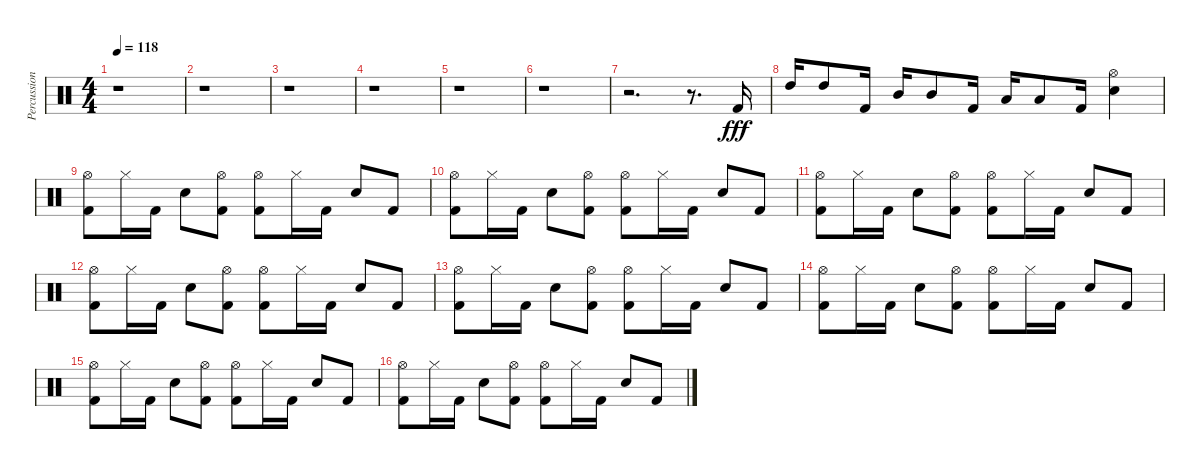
\track ("Percussion" "Percussion") {instrument percussion}
\staff {score}
\articulation defaults
\ts (4 4)
\tempo 118
\clef neutral
\ks c
r.1{dy fff} |
r.1 |
r.1 |
r.1 |
r.1 |
r.1 |
r.2{d} r.8{d} "Kick (hit) 2".16 |
"High Tom (hit)".16 "High Tom (hit)".8 "Kick (hit) 2".16 "Mid Tom (hit)".16 "Mid Tom (hit)".8 "Kick (hit) 2".16 "Low Tom (hit)".16 "Low Tom (hit)".8 "Kick (hit) 2".16 ("Hi-Hat (open)" "Electric Snare (hit)").4 |
("Hi-Hat (open)" "Kick (hit) 2").8 "Hi-Hat (closed)".16 "Kick (hit) 2".16 "Electric Snare (hit)".8 ("Hi-Hat (open)" "Kick (hit) 2").8 ("Hi-Hat (open)" "Kick (hit) 2").8 "Hi-Hat (closed)".16 "Kick (hit) 2".16 "Electric Snare (hit)".8 "Kick (hit) 2".8 |
("Hi-Hat (open)" "Kick (hit) 2").8 "Hi-Hat (closed)".16 "Kick (hit) 2".16 "Electric Snare (hit)".8 ("Hi-Hat (open)" "Kick (hit) 2").8 ("Hi-Hat (open)" "Kick (hit) 2").8 "Hi-Hat (closed)".16 "Kick (hit) 2".16 "Electric Snare (hit)".8 "Kick (hit) 2".8 |
("Hi-Hat (open)" "Kick (hit) 2").8 "Hi-Hat (closed)".16 "Kick (hit) 2".16 "Electric Snare (hit)".8 ("Hi-Hat (open)" "Kick (hit) 2").8 ("Hi-Hat (open)" "Kick (hit) 2").8 "Hi-Hat (closed)".16 "Kick (hit) 2".16 "Electric Snare (hit)".8 "Kick (hit) 2".8 |
("Hi-Hat (open)" "Kick (hit) 2").8 "Hi-Hat (closed)".16 "Kick (hit) 2".16 "Electric Snare (hit)".8 ("Hi-Hat (open)" "Kick (hit) 2").8 ("Hi-Hat (open)" "Kick (hit) 2").8 "Hi-Hat (closed)".16 "Kick (hit) 2".16 "Electric Snare (hit)".8 "Kick (hit) 2".8 |
("Hi-Hat (open)" "Kick (hit) 2").8 "Hi-Hat (closed)".16 "Kick (hit) 2".16 "Electric Snare (hit)".8 ("Hi-Hat (open)" "Kick (hit) 2").8 ("Hi-Hat (open)" "Kick (hit) 2").8 "Hi-Hat (closed)".16 "Kick (hit) 2".16 "Electric Snare (hit)".8 "Kick (hit) 2".8 |
("Hi-Hat (open)" "Kick (hit) 2").8 "Hi-Hat (closed)".16 "Kick (hit) 2".16 "Electric Snare (hit)".8 ("Hi-Hat (open)" "Kick (hit) 2").8 ("Hi-Hat (open)" "Kick (hit) 2").8 "Hi-Hat (closed)".16 "Kick (hit) 2".16 "Electric Snare (hit)".8 "Kick (hit) 2".8 |
("Hi-Hat (open)" "Kick (hit) 2").8 "Hi-Hat (closed)".16 "Kick (hit) 2".16 "Electric Snare (hit)".8 ("Hi-Hat (open)" "Kick (hit) 2").8 ("Hi-Hat (open)" "Kick (hit) 2").8 "Hi-Hat (closed)".16 "Kick (hit) 2".16 "Electric Snare (hit)".8 "Kick (hit) 2".8 |
("Hi-Hat (open)" "Kick (hit) 2").8 "Hi-Hat (closed)".16 "Kick (hit) 2".16 "Electric Snare (hit)".8 ("Hi-Hat (open)" "Kick (hit) 2").8 ("Hi-Hat (open)" "Kick (hit) 2").8 "Hi-Hat (closed)".16 "Kick (hit) 2".16 "Electric Snare (hit)".8 "Kick (hit) 2".8
